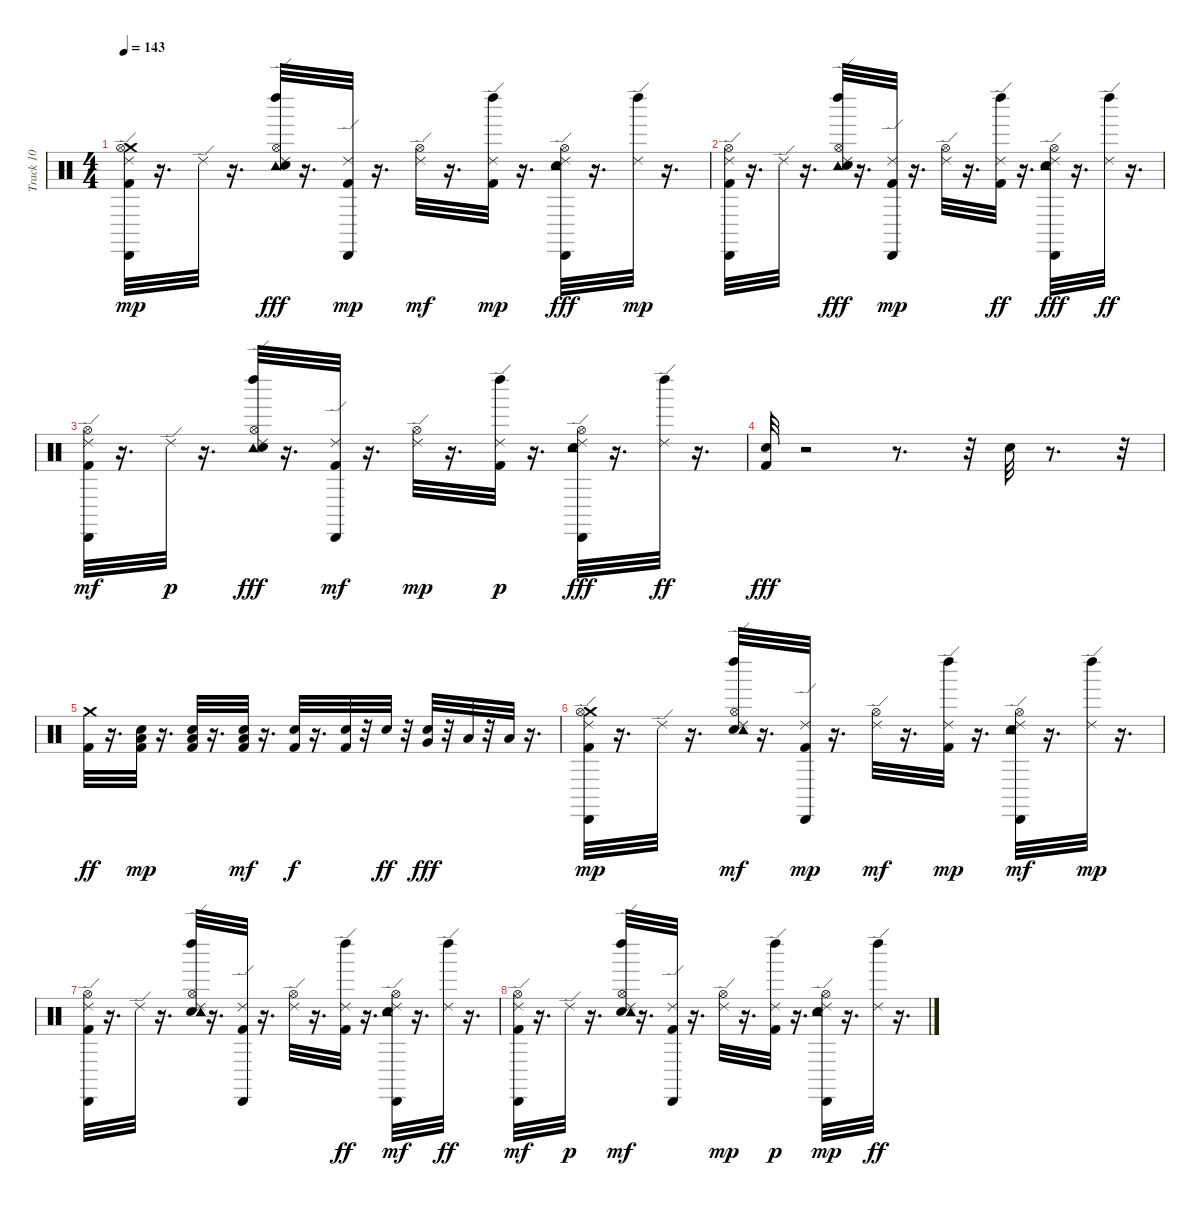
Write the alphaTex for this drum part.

\track ("Track 10" "Track 10") {instrument percussion}
\staff {score}
\articulation defaults
\ts (4 4)
\tempo 143
\clef neutral
\ks c
("Kick (hit) 2" "Crash medium (hit)" "Ride (edge) 2" "Cabasa (hit)" "Hi-Hat (open)").32{dy mp} r.16{d} "Ride (edge) 2".32 r.16{d} ("Ride (edge) 2" "Tambourine (hit)" "Left Maraca (hit)" "Hi-Hat (open)" "Snare (hit) 2").32{dy fff} r.16{d} ("Kick (hit) 2" "Ride (edge) 2" "Cabasa (hit)").32{dy mp} r.16{d} ("Ride (edge) 2" "Hi-Hat (open)").32{dy mf} r.16{d} ("Kick (hit) 2" "Ride (edge) 2" "Left Maraca (hit)").32{dy mp} r.16{d} ("Ride (edge) 2" "Tambourine (hit)" "Cabasa (hit)" "Hi-Hat (open)" "Snare (hit) 2").32{dy fff} r.16{d} ("Ride (edge) 2" "Left Maraca (hit)").32{dy mp} r.16{d} |
("Kick (hit) 2" "Ride (edge) 2" "Cabasa (hit)" "Hi-Hat (open)").32 r.16{d} "Ride (edge) 2".32 r.16{d} ("Ride (edge) 2" "Tambourine (hit)" "Left Maraca (hit)" "Hi-Hat (open)" "Snare (hit) 2").32{dy fff} r.16{d} ("Kick (hit) 2" "Ride (edge) 2" "Cabasa (hit)").32{dy mp} r.16{d} ("Ride (edge) 2" "Hi-Hat (open)").32 r.16{d} ("Kick (hit) 2" "Ride (edge) 2" "Left Maraca (hit)").32{dy ff} r.16{d} ("Ride (edge) 2" "Tambourine (hit)" "Cabasa (hit)" "Hi-Hat (open)" "Snare (hit) 2").32{dy fff} r.16{d} ("Ride (edge) 2" "Left Maraca (hit)").32{dy ff} r.16{d} |
("Kick (hit) 2" "Ride (edge) 2" "Cabasa (hit)" "Hi-Hat (open)").32{dy mf} r.16{d} "Ride (edge) 2".32{dy p} r.16{d} ("Ride (edge) 2" "Tambourine (hit)" "Left Maraca (hit)" "Hi-Hat (open)" "Snare (hit) 2").32{dy fff} r.16{d} ("Kick (hit) 2" "Ride (edge) 2" "Cabasa (hit)").32{dy mf} r.16{d} ("Ride (edge) 2" "Hi-Hat (open)").32{dy mp} r.16{d} ("Kick (hit) 2" "Ride (edge) 2" "Left Maraca (hit)").32{dy p} r.16{d} ("Ride (edge) 2" "Tambourine (hit)" "Cabasa (hit)" "Hi-Hat (open)" "Snare (hit) 2").32{dy fff} r.16{d} ("Ride (edge) 2" "Left Maraca (hit)").32{dy ff} r.16{d} |
("Kick (hit) 2" "Snare (hit) 2").32{dy fff} r.2 r.8{d} r.32 "Snare (hit) 2".32 r.8{d} r.32 |
("Crash medium (hit)" "Kick (hit) 2").32{dy ff} r.16{d} ("Snare (hit) 2" "Kick (hit) 2" "Low Floor Tom (hit)").32{dy mp} r.16{d} ("Snare (hit) 2" "Kick (hit) 2" "Low Floor Tom (hit)").32 r.16{d} ("Snare (hit) 2" "Kick (hit) 2" "Low Floor Tom (hit)").32{dy mf} r.16{d} ("Snare (hit) 2" "Kick (hit) 2").32{dy f} r.16{d} ("Snare (hit) 2" "Kick (hit) 2").32 r.32 "Snare (hit) 2".32{dy ff} r.32 ("Very Low Tom (hit)" "Snare (hit) 2").32{dy fff} r.32 "Low Floor Tom (hit)".32 r.32 "Low Floor Tom (hit)".32 r.16{d} |
("Kick (hit) 2" "Crash medium (hit)" "Ride (edge) 2" "Cabasa (hit)" "Hi-Hat (open)").32{dy mp} r.16{d} "Ride (edge) 2".32 r.16{d} ("Snare (hit) 2" "Ride (edge) 2" "Tambourine (hit)" "Left Maraca (hit)" "Hi-Hat (open)").32{dy mf} r.16{d} ("Kick (hit) 2" "Ride (edge) 2" "Cabasa (hit)").32{dy mp} r.16{d} ("Ride (edge) 2" "Hi-Hat (open)").32{dy mf} r.16{d} ("Kick (hit) 2" "Ride (edge) 2" "Left Maraca (hit)").32{dy mp} r.16{d} ("Snare (hit) 2" "Ride (edge) 2" "Tambourine (hit)" "Cabasa (hit)" "Hi-Hat (open)").32{dy mf} r.16{d} ("Ride (edge) 2" "Left Maraca (hit)").32{dy mp} r.16{d} |
("Kick (hit) 2" "Ride (edge) 2" "Cabasa (hit)" "Hi-Hat (open)").32 r.16{d} "Ride (edge) 2".32 r.16{d} ("Snare (hit) 2" "Ride (edge) 2" "Tambourine (hit)" "Left Maraca (hit)" "Hi-Hat (open)").32 r.16{d} ("Kick (hit) 2" "Ride (edge) 2" "Cabasa (hit)").32 r.16{d} ("Ride (edge) 2" "Hi-Hat (open)").32 r.16{d} ("Kick (hit) 2" "Ride (edge) 2" "Left Maraca (hit)").32{dy ff} r.16{d} ("Snare (hit) 2" "Ride (edge) 2" "Tambourine (hit)" "Cabasa (hit)" "Hi-Hat (open)").32{dy mf} r.16{d} ("Ride (edge) 2" "Left Maraca (hit)").32{dy ff} r.16{d} |
("Kick (hit) 2" "Ride (edge) 2" "Cabasa (hit)" "Hi-Hat (open)").32{dy mf} r.16{d} "Ride (edge) 2".32{dy p} r.16{d} ("Snare (hit) 2" "Ride (edge) 2" "Tambourine (hit)" "Left Maraca (hit)" "Hi-Hat (open)").32{dy mf} r.16{d} ("Kick (hit) 2" "Ride (edge) 2" "Cabasa (hit)").32 r.16{d} ("Ride (edge) 2" "Hi-Hat (open)").32{dy mp} r.16{d} ("Kick (hit) 2" "Ride (edge) 2" "Left Maraca (hit)").32{dy p} r.16{d} ("Snare (hit) 2" "Ride (edge) 2" "Tambourine (hit)" "Cabasa (hit)" "Hi-Hat (open)").32{dy mp} r.16{d} ("Ride (edge) 2" "Left Maraca (hit)").32{dy ff} r.16{d}
